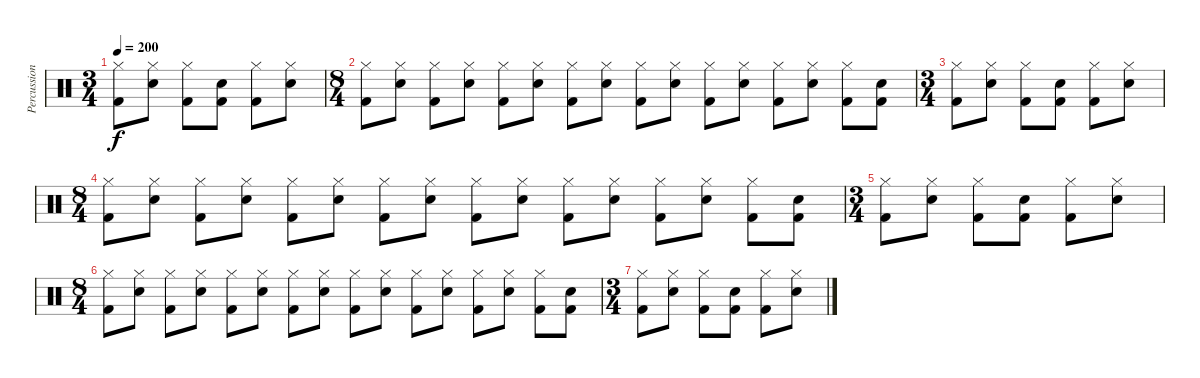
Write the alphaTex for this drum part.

\track ("Percussion" "Percussion") {instrument percussion}
\staff {score}
\articulation defaults
\ts (3 4)
\tempo 200
\clef neutral
\ks c
("Kick (hit) 2" "Hi-Hat (closed)").8{dy f} ("Electric Snare (hit)" "Hi-Hat (closed)").8 ("Kick (hit) 2" "Hi-Hat (closed)").8 ("Electric Snare (hit)" "Kick (hit) 2").8 ("Kick (hit) 2" "Hi-Hat (closed)").8 ("Electric Snare (hit)" "Hi-Hat (closed)").8 |
\ts (8 4)
("Kick (hit) 2" "Hi-Hat (closed)").8 ("Electric Snare (hit)" "Hi-Hat (closed)").8 ("Kick (hit) 2" "Hi-Hat (closed)").8 ("Electric Snare (hit)" "Hi-Hat (closed)").8 ("Kick (hit) 2" "Hi-Hat (closed)").8 ("Electric Snare (hit)" "Hi-Hat (closed)").8 ("Kick (hit) 2" "Hi-Hat (closed)").8 ("Electric Snare (hit)" "Hi-Hat (closed)").8 ("Kick (hit) 2" "Hi-Hat (closed)").8 ("Electric Snare (hit)" "Hi-Hat (closed)").8 ("Kick (hit) 2" "Hi-Hat (closed)").8 ("Electric Snare (hit)" "Hi-Hat (closed)").8 ("Kick (hit) 2" "Hi-Hat (closed)").8 ("Electric Snare (hit)" "Hi-Hat (closed)").8 ("Kick (hit) 2" "Hi-Hat (closed)").8 ("Electric Snare (hit)" "Kick (hit) 2").8 |
\ts (3 4)
("Kick (hit) 2" "Hi-Hat (closed)").8 ("Electric Snare (hit)" "Hi-Hat (closed)").8 ("Kick (hit) 2" "Hi-Hat (closed)").8 ("Electric Snare (hit)" "Kick (hit) 2").8 ("Kick (hit) 2" "Hi-Hat (closed)").8 ("Electric Snare (hit)" "Hi-Hat (closed)").8 |
\ts (8 4)
("Kick (hit) 2" "Hi-Hat (closed)").8 ("Electric Snare (hit)" "Hi-Hat (closed)").8 ("Kick (hit) 2" "Hi-Hat (closed)").8 ("Electric Snare (hit)" "Hi-Hat (closed)").8 ("Kick (hit) 2" "Hi-Hat (closed)").8 ("Electric Snare (hit)" "Hi-Hat (closed)").8 ("Kick (hit) 2" "Hi-Hat (closed)").8 ("Electric Snare (hit)" "Hi-Hat (closed)").8 ("Kick (hit) 2" "Hi-Hat (closed)").8 ("Electric Snare (hit)" "Hi-Hat (closed)").8 ("Kick (hit) 2" "Hi-Hat (closed)").8 ("Electric Snare (hit)" "Hi-Hat (closed)").8 ("Kick (hit) 2" "Hi-Hat (closed)").8 ("Electric Snare (hit)" "Hi-Hat (closed)").8 ("Kick (hit) 2" "Hi-Hat (closed)").8 ("Electric Snare (hit)" "Kick (hit) 2").8 |
\ts (3 4)
("Kick (hit) 2" "Hi-Hat (closed)").8 ("Electric Snare (hit)" "Hi-Hat (closed)").8 ("Kick (hit) 2" "Hi-Hat (closed)").8 ("Electric Snare (hit)" "Kick (hit) 2").8 ("Kick (hit) 2" "Hi-Hat (closed)").8 ("Electric Snare (hit)" "Hi-Hat (closed)").8 |
\ts (8 4)
("Kick (hit) 2" "Hi-Hat (closed)").8 ("Electric Snare (hit)" "Hi-Hat (closed)").8 ("Kick (hit) 2" "Hi-Hat (closed)").8 ("Electric Snare (hit)" "Hi-Hat (closed)").8 ("Kick (hit) 2" "Hi-Hat (closed)").8 ("Electric Snare (hit)" "Hi-Hat (closed)").8 ("Kick (hit) 2" "Hi-Hat (closed)").8 ("Electric Snare (hit)" "Hi-Hat (closed)").8 ("Kick (hit) 2" "Hi-Hat (closed)").8 ("Electric Snare (hit)" "Hi-Hat (closed)").8 ("Kick (hit) 2" "Hi-Hat (closed)").8 ("Electric Snare (hit)" "Hi-Hat (closed)").8 ("Kick (hit) 2" "Hi-Hat (closed)").8 ("Electric Snare (hit)" "Hi-Hat (closed)").8 ("Kick (hit) 2" "Hi-Hat (closed)").8 ("Electric Snare (hit)" "Kick (hit) 2").8 |
\ts (3 4)
("Kick (hit) 2" "Hi-Hat (closed)").8 ("Electric Snare (hit)" "Hi-Hat (closed)").8 ("Kick (hit) 2" "Hi-Hat (closed)").8 ("Electric Snare (hit)" "Kick (hit) 2").8 ("Kick (hit) 2" "Hi-Hat (closed)").8 ("Electric Snare (hit)" "Hi-Hat (closed)").8
